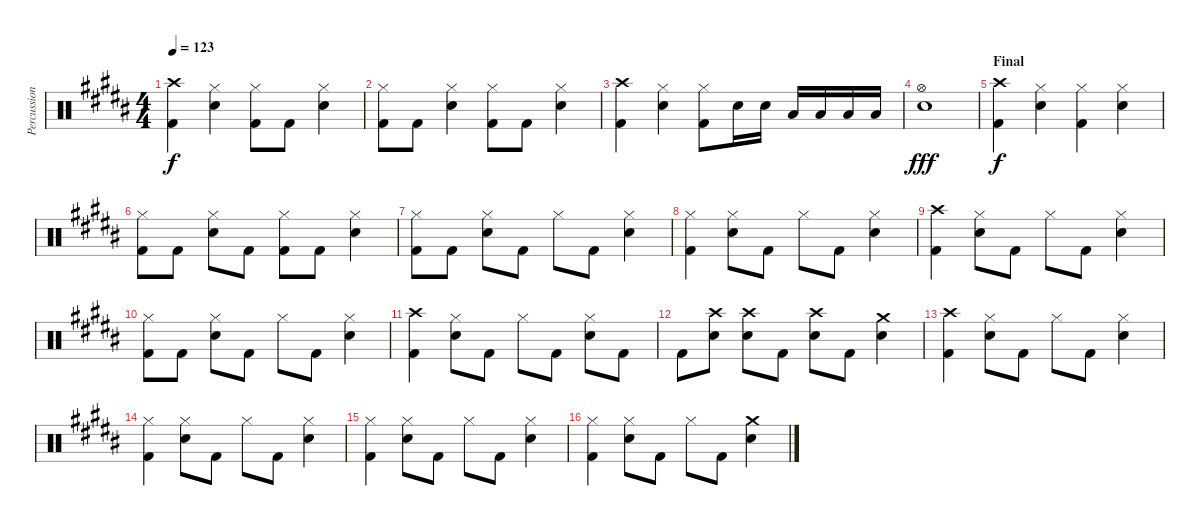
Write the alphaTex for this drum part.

\track ("Percussion" "Percussion") {instrument percussion}
\staff {score}
\articulation defaults
\ts (4 4)
\tempo 123
\clef neutral
\ks b
("Crash high (hit)" "Kick (hit) 2").4{dy f} ("Hi-Hat (closed)" "Snare (hit) 2").4 ("Hi-Hat (closed)" "Kick (hit) 2").8 "Kick (hit) 2".8 ("Hi-Hat (closed)" "Snare (hit) 2").4 |
("Hi-Hat (closed)" "Kick (hit) 2").8 "Kick (hit) 2".8 ("Hi-Hat (closed)" "Snare (hit) 2").4 ("Hi-Hat (closed)" "Kick (hit) 2").8 "Kick (hit) 2".8 ("Hi-Hat (closed)" "Snare (hit) 2").4 |
("Crash high (hit)" "Kick (hit) 2").4 ("Hi-Hat (closed)" "Snare (hit) 2").4 ("Hi-Hat (closed)" "Kick (hit) 2").8 "Snare (hit) 2".16 "Snare (hit) 2".16 "Low Tom (hit)".16 "Low Tom (hit)".16 "Low Tom (hit)".16 "Low Tom (hit)".16 |
("Hi-Hat (open)" "Snare (hit) 2").1{dy fff} |
\section ("" "Final")
("Crash high (hit)" "Kick (hit) 2").4{dy f} ("Hi-Hat (closed)" "Snare (hit) 2").4 ("Hi-Hat (closed)" "Kick (hit) 2").4 ("Hi-Hat (closed)" "Snare (hit) 2").4 |
("Hi-Hat (closed)" "Kick (hit) 2").8 "Kick (hit) 2".8 ("Hi-Hat (closed)" "Snare (hit) 2").8 "Kick (hit) 2".8 ("Hi-Hat (closed)" "Kick (hit) 2").8 "Kick (hit) 2".8 ("Hi-Hat (closed)" "Snare (hit) 2").4 |
("Hi-Hat (closed)" "Kick (hit) 2").8 "Kick (hit) 2".8 ("Hi-Hat (closed)" "Snare (hit) 2").8 "Kick (hit) 2".8 "Hi-Hat (closed)".8 "Kick (hit) 2".8 ("Hi-Hat (closed)" "Snare (hit) 2").4 |
("Hi-Hat (closed)" "Kick (hit) 2").4 ("Hi-Hat (closed)" "Snare (hit) 2").8 "Kick (hit) 2".8 "Hi-Hat (closed)".8 "Kick (hit) 2".8 ("Hi-Hat (closed)" "Snare (hit) 2").4 |
("Crash high (hit)" "Kick (hit) 2").4 ("Hi-Hat (closed)" "Snare (hit) 2").8 "Kick (hit) 2".8 "Hi-Hat (closed)".8 "Kick (hit) 2".8 ("Hi-Hat (closed)" "Snare (hit) 2").4 |
("Hi-Hat (closed)" "Kick (hit) 2").8 "Kick (hit) 2".8 ("Hi-Hat (closed)" "Snare (hit) 2").8 "Kick (hit) 2".8 "Hi-Hat (closed)".8 "Kick (hit) 2".8 ("Hi-Hat (closed)" "Snare (hit) 2").4 |
("Crash high (hit)" "Kick (hit) 2").4 ("Hi-Hat (closed)" "Snare (hit) 2").8 "Kick (hit) 2".8 "Hi-Hat (closed)".8 "Kick (hit) 2".8 ("Hi-Hat (closed)" "Snare (hit) 2").8 "Kick (hit) 2".8 |
"Kick (hit) 2".8 ("Crash high (hit)" "Snare (hit) 2").8 ("Crash high (hit)" "Snare (hit) 2").8 "Kick (hit) 2".8 ("Crash high (hit)" "Snare (hit) 2").8 "Kick (hit) 2".8 ("Crash medium (hit)" "Snare (hit) 2").4 |
("Crash high (hit)" "Kick (hit) 2").4 ("Hi-Hat (closed)" "Snare (hit) 2").8 "Kick (hit) 2".8 "Hi-Hat (closed)".8 "Kick (hit) 2".8 ("Hi-Hat (closed)" "Snare (hit) 2").4 |
("Hi-Hat (closed)" "Kick (hit) 2").4 ("Hi-Hat (closed)" "Snare (hit) 2").8 "Kick (hit) 2".8 "Hi-Hat (closed)".8 "Kick (hit) 2".8 ("Hi-Hat (closed)" "Snare (hit) 2").4 |
("Hi-Hat (closed)" "Kick (hit) 2").4 ("Hi-Hat (closed)" "Snare (hit) 2").8 "Kick (hit) 2".8 "Hi-Hat (closed)".8 "Kick (hit) 2".8 ("Hi-Hat (closed)" "Snare (hit) 2").4 |
("Hi-Hat (closed)" "Kick (hit) 2").4 ("Hi-Hat (closed)" "Snare (hit) 2").8 "Kick (hit) 2".8 "Hi-Hat (closed)".8 "Kick (hit) 2".8 ("Crash medium (hit)" "Snare (hit) 2").4
